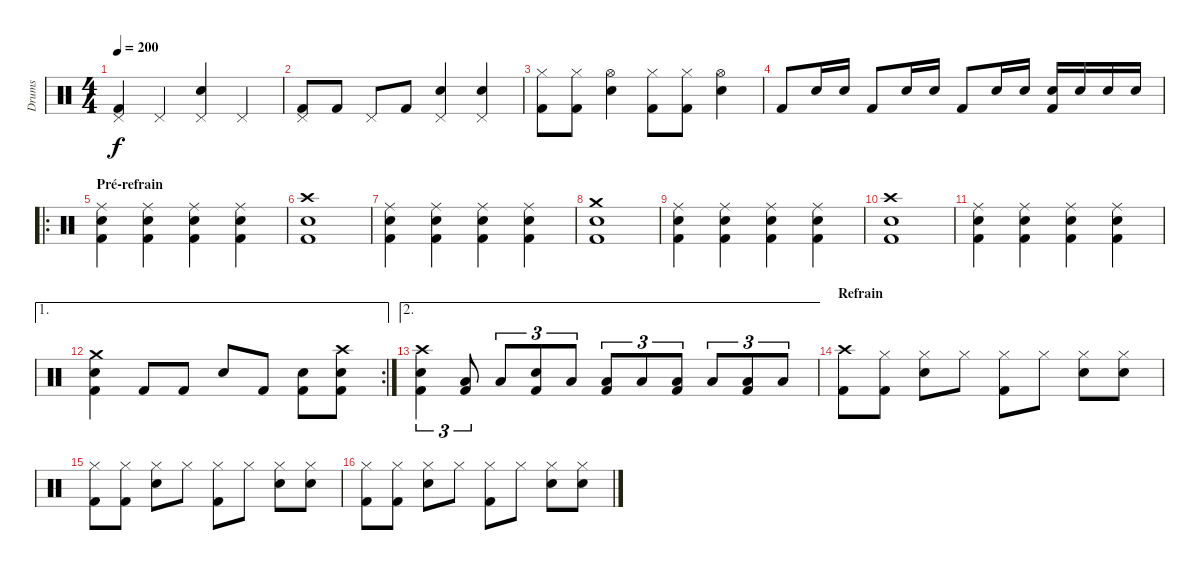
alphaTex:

\track ("Drums" "Drums") {instrument percussion}
\staff {score}
\articulation defaults
\ts (4 4)
\tempo 200
\clef neutral
\ks c
("Pedal Hi-Hat (hit)" "Kick (hit) 2").4{dy f} "Pedal Hi-Hat (hit)".4 ("Pedal Hi-Hat (hit)" "Snare (hit) 2").4 "Pedal Hi-Hat (hit)".4 |
("Pedal Hi-Hat (hit)" "Kick (hit) 2").8 "Kick (hit) 2".8 "Pedal Hi-Hat (hit)".8 "Kick (hit) 2".8 ("Pedal Hi-Hat (hit)" "Snare (hit) 2").4 ("Pedal Hi-Hat (hit)" "Snare (hit) 2").4 |
("Hi-Hat (closed)" "Kick (hit) 2").8 ("Hi-Hat (closed)" "Kick (hit) 2").8 ("Hi-Hat (open)" "Snare (hit) 2").4 ("Hi-Hat (closed)" "Kick (hit) 2").8 ("Hi-Hat (closed)" "Kick (hit) 2").8 ("Hi-Hat (open)" "Snare (hit) 2").4 |
"Kick (hit) 2".8 "Snare (hit) 2".16 "Snare (hit) 2".16 "Kick (hit) 2".8 "Snare (hit) 2".16 "Snare (hit) 2".16 "Kick (hit) 2".8 "Snare (hit) 2".16 "Snare (hit) 2".16 ("Snare (hit) 2" "Kick (hit) 2").16 "Snare (hit) 2".16 "Snare (hit) 2".16 "Snare (hit) 2".16 |
\ro
\section ("" "Pré-refrain")
("Ride (middle)" "Snare (hit) 2" "Kick (hit) 2").4 ("Ride (middle)" "Snare (hit) 2" "Kick (hit) 2").4 ("Ride (middle)" "Snare (hit) 2" "Kick (hit) 2").4 ("Ride (middle)" "Snare (hit) 2" "Kick (hit) 2").4 |
("Crash high (hit)" "Snare (hit) 2" "Kick (hit) 2").1 |
("Ride (middle)" "Snare (hit) 2" "Kick (hit) 2").4 ("Ride (middle)" "Snare (hit) 2" "Kick (hit) 2").4 ("Ride (middle)" "Snare (hit) 2" "Kick (hit) 2").4 ("Ride (middle)" "Snare (hit) 2" "Kick (hit) 2").4 |
("Crash medium (hit)" "Snare (hit) 2" "Kick (hit) 2").1 |
("Ride (middle)" "Snare (hit) 2" "Kick (hit) 2").4 ("Ride (middle)" "Snare (hit) 2" "Kick (hit) 2").4 ("Ride (middle)" "Snare (hit) 2" "Kick (hit) 2").4 ("Ride (middle)" "Snare (hit) 2" "Kick (hit) 2").4 |
("Crash high (hit)" "Snare (hit) 2" "Kick (hit) 2").1 |
("Ride (middle)" "Snare (hit) 2" "Kick (hit) 2").4 ("Ride (middle)" "Snare (hit) 2" "Kick (hit) 2").4 ("Ride (middle)" "Snare (hit) 2" "Kick (hit) 2").4 ("Ride (middle)" "Snare (hit) 2" "Kick (hit) 2").4 |
\ae 1
\rc 2
("Crash medium (hit)" "Snare (hit) 2" "Kick (hit) 2").4 "Kick (hit) 2".8 "Kick (hit) 2".8 "Snare (hit) 2".8 "Kick (hit) 2".8 ("Snare (hit) 2" "Kick (hit) 2").8 ("Crash high (hit)" "Snare (hit) 2" "Kick (hit) 2").8 |
\ae 2
("Crash high (hit)" "Snare (hit) 2" "Kick (hit) 2").4{tu (3 2)} ("Low Floor Tom (hit)" "Kick (hit) 2").8{tu (3 2)} "Low Floor Tom (hit)".8{tu (3 2)} ("Snare (hit) 2" "Kick (hit) 2").8{tu (3 2)} "Low Tom (hit)".8{tu (3 2)} ("Low Tom (hit)" "Kick (hit) 2").8{tu (3 2)} "Low Floor Tom (hit)".8{tu (3 2)} ("Low Floor Tom (hit)" "Kick (hit) 2").8{tu (3 2)} "Low Tom (hit)".8{tu (3 2)} ("Low Floor Tom (hit)" "Kick (hit) 2").8{tu (3 2)} "Low Floor Tom (hit)".8{tu (3 2)} |
\section ("" "Refrain")
("Crash high (hit)" "Kick (hit) 2").8 ("Hi-Hat (closed)" "Kick (hit) 2").8 ("Hi-Hat (closed)" "Snare (hit) 2").8 "Hi-Hat (closed)".8 ("Hi-Hat (closed)" "Kick (hit) 2").8 "Hi-Hat (closed)".8 ("Hi-Hat (closed)" "Snare (hit) 2").8 ("Hi-Hat (closed)" "Snare (hit) 2").8 |
("Hi-Hat (closed)" "Kick (hit) 2").8 ("Hi-Hat (closed)" "Kick (hit) 2").8 ("Hi-Hat (closed)" "Snare (hit) 2").8 "Hi-Hat (closed)".8 ("Hi-Hat (closed)" "Kick (hit) 2").8 "Hi-Hat (closed)".8 ("Hi-Hat (closed)" "Snare (hit) 2").8 ("Hi-Hat (closed)" "Snare (hit) 2").8 |
("Hi-Hat (closed)" "Kick (hit) 2").8 ("Hi-Hat (closed)" "Kick (hit) 2").8 ("Hi-Hat (closed)" "Snare (hit) 2").8 "Hi-Hat (closed)".8 ("Hi-Hat (closed)" "Kick (hit) 2").8 "Hi-Hat (closed)".8 ("Hi-Hat (closed)" "Snare (hit) 2").8 ("Hi-Hat (closed)" "Snare (hit) 2").8
